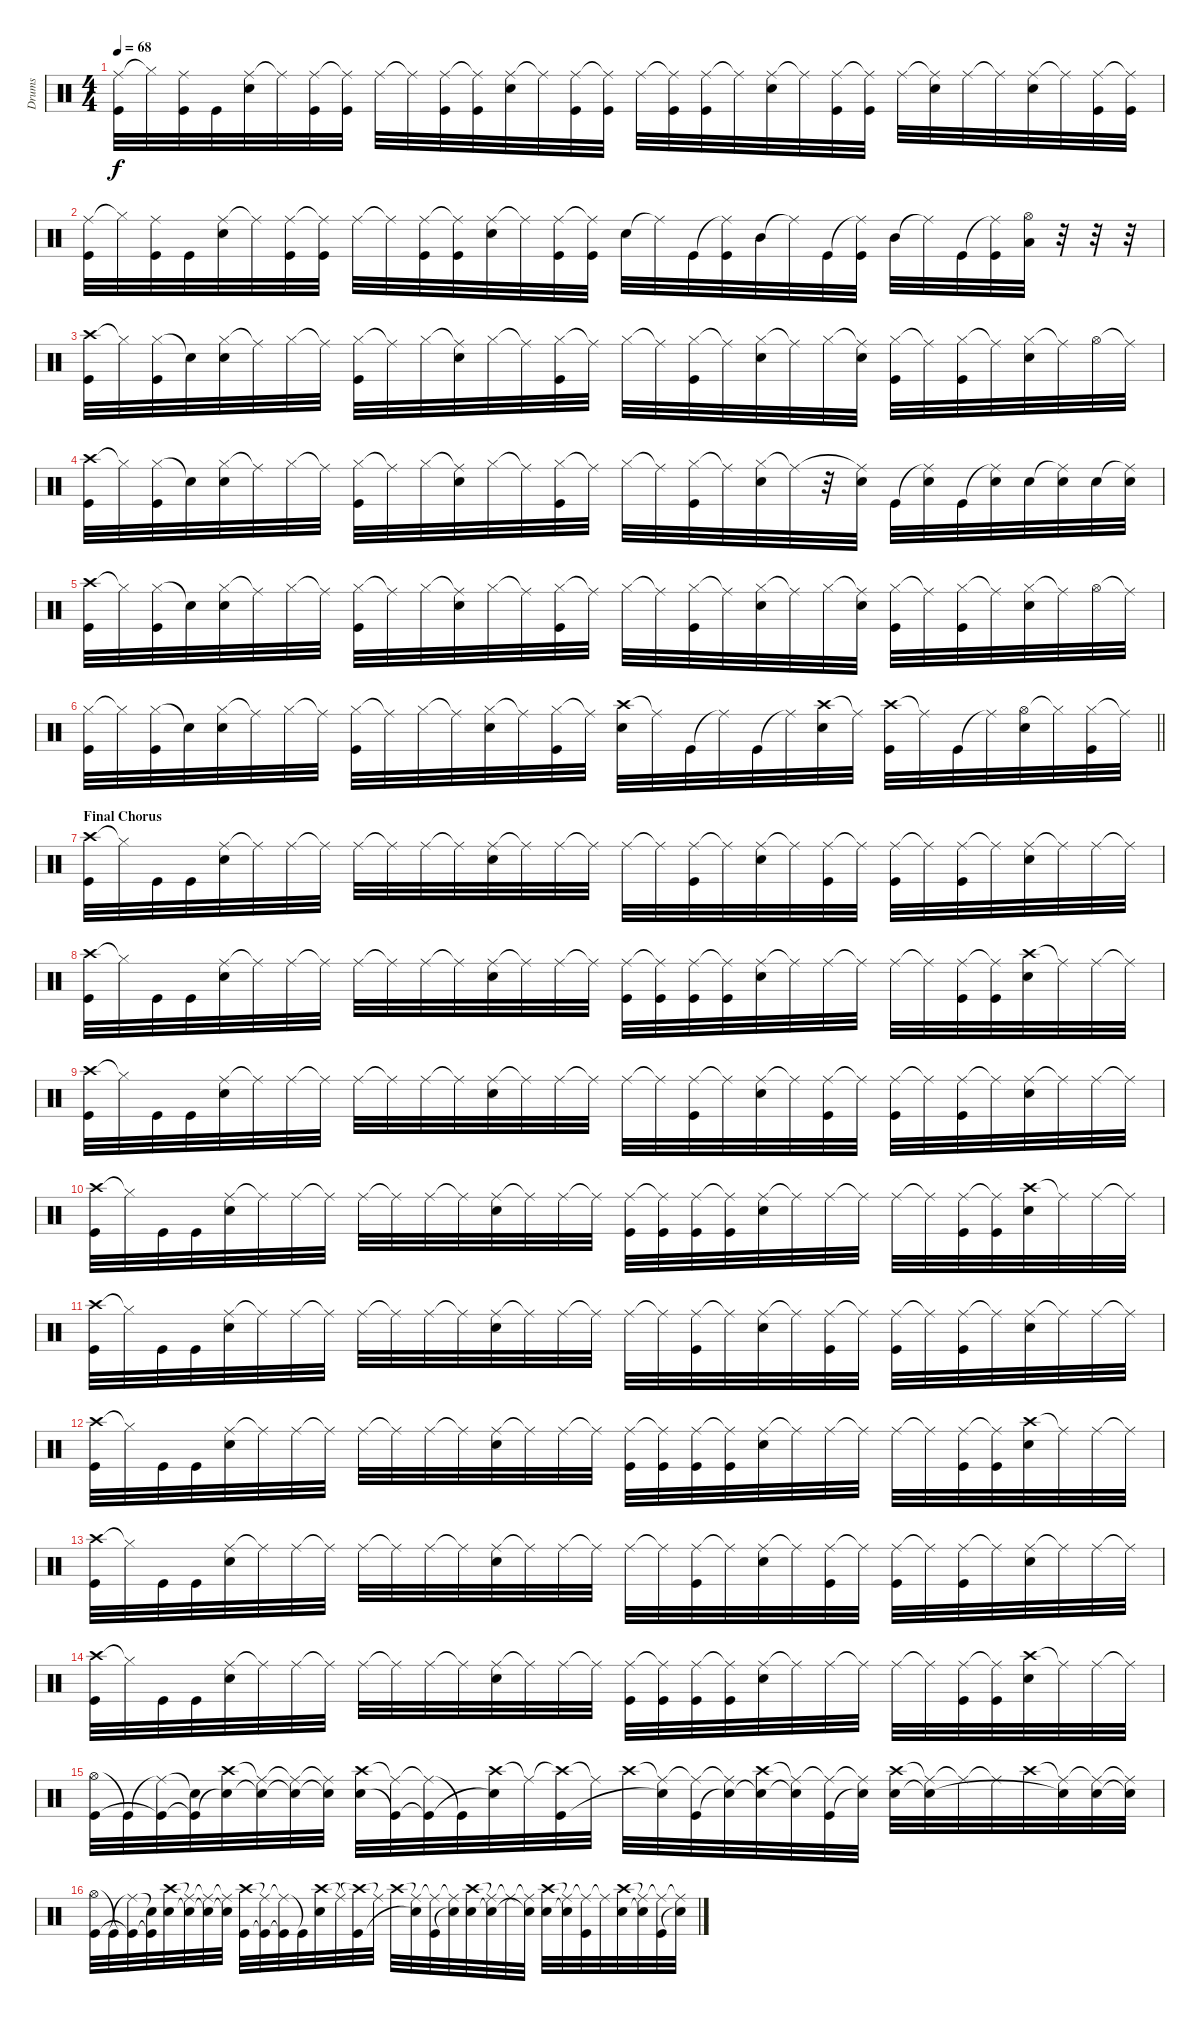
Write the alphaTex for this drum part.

\track ("Drums" "Drums") {instrument percussion}
\staff {score}
\articulation defaults
\ts (4 4)
\tempo 68
\clef neutral
\ks c
("Ride (middle)" "Kick (hit)").32{dy f} "Hi-Hat (closed)"{t}.32 ("Ride (middle)" "Kick (hit)").32 "Kick (hit)".32 ("Ride (middle)" "Electric Snare (hit)").32 "Ride (middle)"{t}.32 ("Ride (middle)" "Kick (hit)").32 ("Ride (middle)"{t} "Kick (hit)").32 "Ride (middle)".32 "Ride (middle)"{t}.32 ("Ride (middle)" "Kick (hit)").32 ("Ride (middle)"{t} "Kick (hit)").32 ("Ride (middle)" "Electric Snare (hit)").32 "Ride (middle)"{t}.32 ("Ride (middle)" "Kick (hit)").32 ("Ride (middle)"{t} "Kick (hit)").32 "Ride (middle)".32 ("Ride (middle)"{t} "Kick (hit)").32 ("Ride (middle)" "Kick (hit)").32 "Ride (middle)"{t}.32 ("Ride (middle)" "Electric Snare (hit)").32 "Ride (middle)"{t}.32 ("Ride (middle)" "Kick (hit)").32 ("Ride (middle)"{t} "Kick (hit)").32 "Ride (middle)".32 ("Ride (middle)"{t} "Electric Snare (hit)").32 "Ride (middle)".32 "Ride (middle)"{t}.32 ("Ride (middle)" "Electric Snare (hit)").32 "Ride (middle)"{t}.32 ("Ride (middle)" "Kick (hit)").32 ("Ride (middle)"{t} "Kick (hit)").32 |
("Ride (middle)" "Kick (hit)").32 "Hi-Hat (closed)"{t}.32 ("Ride (middle)" "Kick (hit)").32 "Kick (hit)".32 ("Ride (middle)" "Electric Snare (hit)").32 "Ride (middle)"{t}.32 ("Ride (middle)" "Kick (hit)").32 ("Ride (middle)"{t} "Kick (hit)").32 "Ride (middle)".32 "Ride (middle)"{t}.32 ("Ride (middle)" "Kick (hit)").32 ("Ride (middle)"{t} "Kick (hit)").32 ("Ride (middle)" "Electric Snare (hit)").32 "Ride (middle)"{t}.32 ("Ride (middle)" "Kick (hit)").32 ("Ride (middle)"{t} "Kick (hit)").32 "Electric Snare (hit)".32 "Ride (middle)"{t}.32 "Kick (hit)".32 ("Ride (middle)"{t} "Kick (hit)").32 "Mid Tom (hit)".32 "Ride (middle)"{t}.32 "Kick (hit)".32 ("Ride (middle)"{t} "Kick (hit)").32 "Mid Tom (hit)".32 "Ride (middle)"{t}.32 "Kick (hit)".32 ("Ride (middle)"{t} "Kick (hit)").32 ("Hi-Hat (open)" "Low Tom (hit)").32 r.32 r.32 r.32 |
("Crash high (hit)" "Kick (hit)").32 "Hi-Hat (closed)"{t}.32 ("Hi-Hat (closed)" "Kick (hit)").32 "Snare (hit)"{t}.32 ("Hi-Hat (closed)" "Electric Snare (hit)").32 "Ride (middle)"{t}.32 "Hi-Hat (closed)".32 "Ride (middle)"{t}.32 ("Hi-Hat (closed)" "Kick (hit)").32 "Ride (middle)"{t}.32 "Hi-Hat (closed)".32 ("Ride (middle)"{t} "Electric Snare (hit)").32 "Hi-Hat (closed)".32 "Ride (middle)"{t}.32 ("Hi-Hat (closed)" "Kick (hit)").32 "Ride (middle)"{t}.32 "Hi-Hat (closed)".32 "Ride (middle)"{t}.32 ("Hi-Hat (closed)" "Kick (hit)").32 "Ride (middle)"{t}.32 ("Hi-Hat (closed)" "Electric Snare (hit)").32 "Ride (middle)"{t}.32 "Hi-Hat (closed)".32 ("Ride (middle)"{t} "Electric Snare (hit)").32 ("Hi-Hat (closed)" "Kick (hit)").32 "Ride (middle)"{t}.32 ("Hi-Hat (closed)" "Kick (hit)").32 "Ride (middle)"{t}.32 ("Hi-Hat (closed)" "Electric Snare (hit)").32 "Ride (middle)"{t}.32 "Hi-Hat (open)".32 "Ride (middle)"{t}.32 |
("Crash high (hit)" "Kick (hit)").32 "Hi-Hat (closed)"{t}.32 ("Hi-Hat (closed)" "Kick (hit)").32 "Snare (hit)"{t}.32 ("Hi-Hat (closed)" "Electric Snare (hit)").32 "Ride (middle)"{t}.32 "Hi-Hat (closed)".32 "Ride (middle)"{t}.32 ("Hi-Hat (closed)" "Kick (hit)").32 "Ride (middle)"{t}.32 "Hi-Hat (closed)".32 ("Ride (middle)"{t} "Electric Snare (hit)").32 "Hi-Hat (closed)".32 "Ride (middle)"{t}.32 ("Hi-Hat (closed)" "Kick (hit)").32 "Ride (middle)"{t}.32 "Hi-Hat (closed)".32 "Ride (middle)"{t}.32 ("Hi-Hat (closed)" "Kick (hit)").32 "Ride (middle)"{t}.32 ("Hi-Hat (closed)" "Electric Snare (hit)").32 "Ride (middle)"{t}.32 r.32 ("Ride (middle)"{t} "Electric Snare (hit)").32 "Kick (hit)".32 ("Ride (middle)"{t} "Electric Snare (hit)").32 "Kick (hit)".32 ("Ride (middle)"{t} "Electric Snare (hit)").32 "Electric Snare (hit)".32 ("Ride (middle)"{t} "Electric Snare (hit)").32 "Electric Snare (hit)".32 ("Ride (middle)"{t} "Electric Snare (hit)").32 |
("Crash high (hit)" "Kick (hit)").32 "Hi-Hat (closed)"{t}.32 ("Hi-Hat (closed)" "Kick (hit)").32 "Snare (hit)"{t}.32 ("Hi-Hat (closed)" "Electric Snare (hit)").32 "Ride (middle)"{t}.32 "Hi-Hat (closed)".32 "Ride (middle)"{t}.32 ("Hi-Hat (closed)" "Kick (hit)").32 "Ride (middle)"{t}.32 "Hi-Hat (closed)".32 ("Ride (middle)"{t} "Electric Snare (hit)").32 "Hi-Hat (closed)".32 "Ride (middle)"{t}.32 ("Hi-Hat (closed)" "Kick (hit)").32 "Ride (middle)"{t}.32 "Hi-Hat (closed)".32 "Ride (middle)"{t}.32 ("Hi-Hat (closed)" "Kick (hit)").32 "Ride (middle)"{t}.32 ("Hi-Hat (closed)" "Electric Snare (hit)").32 "Ride (middle)"{t}.32 "Hi-Hat (closed)".32 ("Ride (middle)"{t} "Electric Snare (hit)").32 ("Hi-Hat (closed)" "Kick (hit)").32 "Ride (middle)"{t}.32 ("Hi-Hat (closed)" "Kick (hit)").32 "Ride (middle)"{t}.32 ("Hi-Hat (closed)" "Electric Snare (hit)").32 "Ride (middle)"{t}.32 "Hi-Hat (open)".32 "Ride (middle)"{t}.32 |
\barLineRight lightlight
("Hi-Hat (closed)" "Kick (hit)").32 "Hi-Hat (closed)"{t}.32 ("Hi-Hat (closed)" "Kick (hit)").32 "Snare (hit)"{t}.32 ("Hi-Hat (closed)" "Electric Snare (hit)").32 "Ride (middle)"{t}.32 "Hi-Hat (closed)".32 "Ride (middle)"{t}.32 ("Hi-Hat (closed)" "Kick (hit)").32 "Ride (middle)"{t}.32 "Hi-Hat (closed)".32 "Ride (middle)"{t}.32 ("Hi-Hat (closed)" "Electric Snare (hit)").32 "Ride (middle)"{t}.32 ("Hi-Hat (closed)" "Kick (hit)").32 "Ride (middle)"{t}.32 ("Crash high (hit)" "Electric Snare (hit)").32 "Ride (middle)"{t}.32 "Kick (hit)".32 "Ride (middle)"{t}.32 "Kick (hit)".32 "Ride (middle)"{t}.32 ("Crash high (hit)" "Electric Snare (hit)").32 "Ride (middle)"{t}.32 ("Crash high (hit)" "Kick (hit)").32 "Ride (middle)"{t}.32 "Kick (hit)".32 "Ride (middle)"{t}.32 ("Hi-Hat (open)" "Electric Snare (hit)").32 "Hi-Hat (closed)"{t}.32 ("Hi-Hat (closed)" "Kick (hit)").32 "Ride (middle)"{t}.32 |
\section ("" "Final Chorus")
("Crash high (hit)" "Kick (hit)").32 "Hi-Hat (closed)"{t}.32 "Kick (hit)".32 "Kick (hit)".32 ("Ride (middle)" "Electric Snare (hit)").32 "Ride (middle)"{t}.32 "Ride (middle)".32 "Ride (middle)"{t}.32 "Ride (middle)".32 "Ride (middle)"{t}.32 "Ride (middle)".32 "Ride (middle)"{t}.32 ("Ride (middle)" "Electric Snare (hit)").32 "Ride (middle)"{t}.32 "Ride (middle)".32 "Ride (middle)"{t}.32 "Ride (middle)".32 "Ride (middle)"{t}.32 ("Ride (middle)" "Kick (hit)").32 "Ride (middle)"{t}.32 ("Ride (middle)" "Electric Snare (hit)").32 "Ride (middle)"{t}.32 ("Ride (middle)" "Kick (hit)").32 "Ride (middle)"{t}.32 ("Ride (middle)" "Kick (hit)").32 "Ride (middle)"{t}.32 ("Ride (middle)" "Kick (hit)").32 "Ride (middle)"{t}.32 ("Ride (middle)" "Electric Snare (hit)").32 "Ride (middle)"{t}.32 "Ride (middle)".32 "Ride (middle)"{t}.32 |
("Crash high (hit)" "Kick (hit)").32 "Hi-Hat (closed)"{t}.32 "Kick (hit)".32 "Kick (hit)".32 ("Ride (middle)" "Electric Snare (hit)").32 "Ride (middle)"{t}.32 "Ride (middle)".32 "Ride (middle)"{t}.32 "Ride (middle)".32 "Ride (middle)"{t}.32 "Ride (middle)".32 "Ride (middle)"{t}.32 ("Ride (middle)" "Electric Snare (hit)").32 "Ride (middle)"{t}.32 "Ride (middle)".32 "Ride (middle)"{t}.32 ("Ride (middle)" "Kick (hit)").32 ("Ride (middle)"{t} "Kick (hit)").32 ("Ride (middle)" "Kick (hit)").32 ("Ride (middle)"{t} "Kick (hit)").32 ("Ride (middle)" "Electric Snare (hit)").32 "Ride (middle)"{t}.32 "Ride (middle)".32 "Ride (middle)"{t}.32 "Ride (middle)".32 "Ride (middle)"{t}.32 ("Ride (middle)" "Kick (hit)").32 ("Ride (middle)"{t} "Kick (hit)").32 ("Crash high (hit)" "Electric Snare (hit)").32 "Ride (middle)"{t}.32 "Ride (middle)".32 "Ride (middle)"{t}.32 |
("Crash high (hit)" "Kick (hit)").32 "Hi-Hat (closed)"{t}.32 "Kick (hit)".32 "Kick (hit)".32 ("Ride (middle)" "Electric Snare (hit)").32 "Ride (middle)"{t}.32 "Ride (middle)".32 "Ride (middle)"{t}.32 "Ride (middle)".32 "Ride (middle)"{t}.32 "Ride (middle)".32 "Ride (middle)"{t}.32 ("Ride (middle)" "Electric Snare (hit)").32 "Ride (middle)"{t}.32 "Ride (middle)".32 "Ride (middle)"{t}.32 "Ride (middle)".32 "Ride (middle)"{t}.32 ("Ride (middle)" "Kick (hit)").32 "Ride (middle)"{t}.32 ("Ride (middle)" "Electric Snare (hit)").32 "Ride (middle)"{t}.32 ("Ride (middle)" "Kick (hit)").32 "Ride (middle)"{t}.32 ("Ride (middle)" "Kick (hit)").32 "Ride (middle)"{t}.32 ("Ride (middle)" "Kick (hit)").32 "Ride (middle)"{t}.32 ("Ride (middle)" "Electric Snare (hit)").32 "Ride (middle)"{t}.32 "Ride (middle)".32 "Ride (middle)"{t}.32 |
("Crash high (hit)" "Kick (hit)").32 "Hi-Hat (closed)"{t}.32 "Kick (hit)".32 "Kick (hit)".32 ("Ride (middle)" "Electric Snare (hit)").32 "Ride (middle)"{t}.32 "Ride (middle)".32 "Ride (middle)"{t}.32 "Ride (middle)".32 "Ride (middle)"{t}.32 "Ride (middle)".32 "Ride (middle)"{t}.32 ("Ride (middle)" "Electric Snare (hit)").32 "Ride (middle)"{t}.32 "Ride (middle)".32 "Ride (middle)"{t}.32 ("Ride (middle)" "Kick (hit)").32 ("Ride (middle)"{t} "Kick (hit)").32 ("Ride (middle)" "Kick (hit)").32 ("Ride (middle)"{t} "Kick (hit)").32 ("Ride (middle)" "Electric Snare (hit)").32 "Ride (middle)"{t}.32 "Ride (middle)".32 "Ride (middle)"{t}.32 "Ride (middle)".32 "Ride (middle)"{t}.32 ("Ride (middle)" "Kick (hit)").32 ("Ride (middle)"{t} "Kick (hit)").32 ("Crash high (hit)" "Electric Snare (hit)").32 "Ride (middle)"{t}.32 "Ride (middle)".32 "Ride (middle)"{t}.32 |
("Crash high (hit)" "Kick (hit)").32 "Hi-Hat (closed)"{t}.32 "Kick (hit)".32 "Kick (hit)".32 ("Ride (middle)" "Electric Snare (hit)").32 "Ride (middle)"{t}.32 "Ride (middle)".32 "Ride (middle)"{t}.32 "Ride (middle)".32 "Ride (middle)"{t}.32 "Ride (middle)".32 "Ride (middle)"{t}.32 ("Ride (middle)" "Electric Snare (hit)").32 "Ride (middle)"{t}.32 "Ride (middle)".32 "Ride (middle)"{t}.32 "Ride (middle)".32 "Ride (middle)"{t}.32 ("Ride (middle)" "Kick (hit)").32 "Ride (middle)"{t}.32 ("Ride (middle)" "Electric Snare (hit)").32 "Ride (middle)"{t}.32 ("Ride (middle)" "Kick (hit)").32 "Ride (middle)"{t}.32 ("Ride (middle)" "Kick (hit)").32 "Ride (middle)"{t}.32 ("Ride (middle)" "Kick (hit)").32 "Ride (middle)"{t}.32 ("Ride (middle)" "Electric Snare (hit)").32 "Ride (middle)"{t}.32 "Ride (middle)".32 "Ride (middle)"{t}.32 |
("Crash high (hit)" "Kick (hit)").32 "Hi-Hat (closed)"{t}.32 "Kick (hit)".32 "Kick (hit)".32 ("Ride (middle)" "Electric Snare (hit)").32 "Ride (middle)"{t}.32 "Ride (middle)".32 "Ride (middle)"{t}.32 "Ride (middle)".32 "Ride (middle)"{t}.32 "Ride (middle)".32 "Ride (middle)"{t}.32 ("Ride (middle)" "Electric Snare (hit)").32 "Ride (middle)"{t}.32 "Ride (middle)".32 "Ride (middle)"{t}.32 ("Ride (middle)" "Kick (hit)").32 ("Ride (middle)"{t} "Kick (hit)").32 ("Ride (middle)" "Kick (hit)").32 ("Ride (middle)"{t} "Kick (hit)").32 ("Ride (middle)" "Electric Snare (hit)").32 "Ride (middle)"{t}.32 "Ride (middle)".32 "Ride (middle)"{t}.32 "Ride (middle)".32 "Ride (middle)"{t}.32 ("Ride (middle)" "Kick (hit)").32 ("Ride (middle)"{t} "Kick (hit)").32 ("Crash high (hit)" "Electric Snare (hit)").32 "Ride (middle)"{t}.32 "Ride (middle)".32 "Ride (middle)"{t}.32 |
("Crash high (hit)" "Kick (hit)").32 "Hi-Hat (closed)"{t}.32 "Kick (hit)".32 "Kick (hit)".32 ("Ride (middle)" "Electric Snare (hit)").32 "Ride (middle)"{t}.32 "Ride (middle)".32 "Ride (middle)"{t}.32 "Ride (middle)".32 "Ride (middle)"{t}.32 "Ride (middle)".32 "Ride (middle)"{t}.32 ("Ride (middle)" "Electric Snare (hit)").32 "Ride (middle)"{t}.32 "Ride (middle)".32 "Ride (middle)"{t}.32 "Ride (middle)".32 "Ride (middle)"{t}.32 ("Ride (middle)" "Kick (hit)").32 "Ride (middle)"{t}.32 ("Ride (middle)" "Electric Snare (hit)").32 "Ride (middle)"{t}.32 ("Ride (middle)" "Kick (hit)").32 "Ride (middle)"{t}.32 ("Ride (middle)" "Kick (hit)").32 "Ride (middle)"{t}.32 ("Ride (middle)" "Kick (hit)").32 "Ride (middle)"{t}.32 ("Ride (middle)" "Electric Snare (hit)").32 "Ride (middle)"{t}.32 "Ride (middle)".32 "Ride (middle)"{t}.32 |
("Crash high (hit)" "Kick (hit)").32 "Hi-Hat (closed)"{t}.32 "Kick (hit)".32 "Kick (hit)".32 ("Ride (middle)" "Electric Snare (hit)").32 "Ride (middle)"{t}.32 "Ride (middle)".32 "Ride (middle)"{t}.32 "Ride (middle)".32 "Ride (middle)"{t}.32 "Ride (middle)".32 "Ride (middle)"{t}.32 ("Ride (middle)" "Electric Snare (hit)").32 "Ride (middle)"{t}.32 "Ride (middle)".32 "Ride (middle)"{t}.32 ("Ride (middle)" "Kick (hit)").32 ("Ride (middle)"{t} "Kick (hit)").32 ("Ride (middle)" "Kick (hit)").32 ("Ride (middle)"{t} "Kick (hit)").32 ("Ride (middle)" "Electric Snare (hit)").32 "Ride (middle)"{t}.32 "Ride (middle)".32 "Ride (middle)"{t}.32 "Ride (middle)".32 "Ride (middle)"{t}.32 ("Ride (middle)" "Kick (hit)").32 ("Ride (middle)"{t} "Kick (hit)").32 ("Crash high (hit)" "Electric Snare (hit)").32 "Ride (middle)"{t}.32 "Ride (middle)".32 "Ride (middle)"{t}.32 |
("Hi-Hat (open)" "Kick (hit)").32 "Kick (hit)"{t}.32 ("Ride (middle)"{t} "Kick (hit)"{t}).32 ("Snare (hit)"{t} "Kick (hit)"{t}).32 ("Crash high (hit)" "Electric Snare (hit)"{t}).32 ("Ride (middle)"{t} "Snare (hit)"{t}).32 ("Ride (middle)"{t} "Snare (hit)"{t}).32 ("Ride (middle)"{t} "Snare (hit)"{t}).32 ("Crash high (hit)" "Electric Snare (hit)").32 ("Ride (middle)"{t} "Kick (hit)"{t}).32 ("Ride (middle)"{t} "Kick (hit)"{t}).32 "Kick (hit)"{t}.32 ("Crash high (hit)" "Electric Snare (hit)"{t}).32 "Ride (middle)"{t}.32 ("Crash high (hit)"{t} "Kick (hit)").32 "Ride (middle)"{t}.32 "Crash high (hit)".32 ("Ride (middle)"{t} "Snare (hit)"{t}).32 ("Ride (middle)"{t} "Kick (hit)").32 ("Ride (middle)"{t} "Snare (hit)"{t}).32 ("Crash high (hit)" "Electric Snare (hit)"{t}).32 ("Ride (middle)"{t} "Snare (hit)"{t}).32 ("Ride (middle)"{t} "Kick (hit)").32 ("Ride (middle)"{t} "Snare (hit)"{t}).32 ("Crash high (hit)" "Electric Snare (hit)").32 ("Ride (middle)"{t} "Snare (hit)"{t}).32 "Ride (middle)"{t}.32 "Ride (middle)"{t}.32 "Crash high (hit)".32 ("Ride (middle)"{t} "Snare (hit)"{t}).32 ("Ride (middle)"{t} "Electric Snare (hit)").32 ("Ride (middle)"{t} "Snare (hit)"{t}).32 |
("Hi-Hat (open)" "Kick (hit)").32 "Kick (hit)"{t}.32 ("Ride (middle)"{t} "Kick (hit)"{t}).32 ("Snare (hit)"{t} "Kick (hit)"{t}).32 ("Crash high (hit)" "Electric Snare (hit)").32 ("Ride (middle)"{t} "Snare (hit)"{t}).32 ("Ride (middle)"{t} "Snare (hit)"{t}).32 ("Ride (middle)"{t} "Snare (hit)"{t}).32 ("Crash high (hit)" "Kick (hit)").32 ("Ride (middle)"{t} "Kick (hit)"{t}).32 ("Ride (middle)"{t} "Kick (hit)"{t}).32 "Kick (hit)"{t}.32 ("Crash high (hit)" "Electric Snare (hit)").32 "Ride (middle)"{t}.32 ("Crash high (hit)"{t} "Kick (hit)").32 "Ride (middle)"{t}.32 "Crash high (hit)".32 ("Ride (middle)"{t} "Snare (hit)"{t}).32 ("Ride (middle)"{t} "Kick (hit)").32 ("Ride (middle)"{t} "Snare (hit)"{t}).32 ("Crash high (hit)" "Electric Snare (hit)").32 ("Ride (middle)"{t} "Snare (hit)"{t}).32 "Ride (middle)"{t}.32 ("Ride (middle)"{t} "Snare (hit)"{t}).32 ("Crash high (hit)" "Electric Snare (hit)").32 ("Ride (middle)"{t} "Snare (hit)"{t}).32 ("Ride (middle)"{t} "Kick (hit)").32 "Ride (middle)"{t}.32 ("Crash high (hit)" "Electric Snare (hit)").32 ("Ride (middle)"{t} "Snare (hit)"{t}).32 ("Ride (middle)"{t} "Kick (hit)").32 ("Ride (middle)"{t} "Snare (hit)"{t}).32
